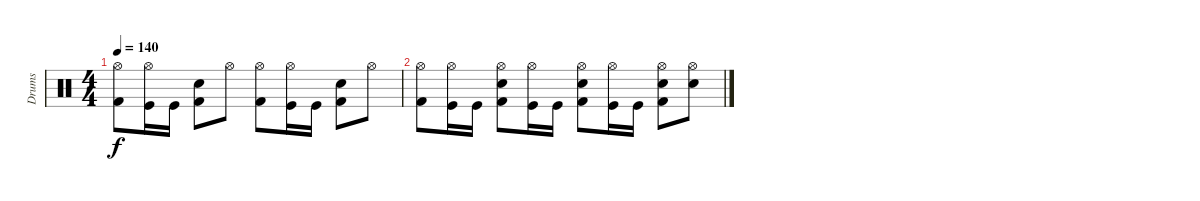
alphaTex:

\track ("Drums" "Drums") {instrument percussion}
\staff {score}
\articulation defaults
\ts (4 4)
\tempo 140
\clef neutral
\ks c
("Hi-Hat (open)" "Kick (hit) 2").8{dy f} ("Hi-Hat (open)" "Kick (hit)").16 "Kick (hit)".16 ("Electric Snare (hit)" "Kick (hit) 2").8 "Hi-Hat (open)".8 ("Hi-Hat (open)" "Kick (hit) 2").8 ("Hi-Hat (open)" "Kick (hit)").16 "Kick (hit)".16 ("Electric Snare (hit)" "Kick (hit) 2").8 "Hi-Hat (open)".8 |
("Hi-Hat (open)" "Kick (hit) 2").8 ("Hi-Hat (open)" "Kick (hit)").16 "Kick (hit)".16 ("Electric Snare (hit)" "Hi-Hat (open)" "Kick (hit) 2").8 ("Hi-Hat (open)" "Kick (hit)").16 "Kick (hit)".16 ("Electric Snare (hit)" "Hi-Hat (open)" "Kick (hit) 2").8 ("Hi-Hat (open)" "Kick (hit)").16 "Kick (hit)".16 ("Electric Snare (hit)" "Hi-Hat (open)" "Kick (hit) 2").8 ("Electric Snare (hit)" "Hi-Hat (open)").8
